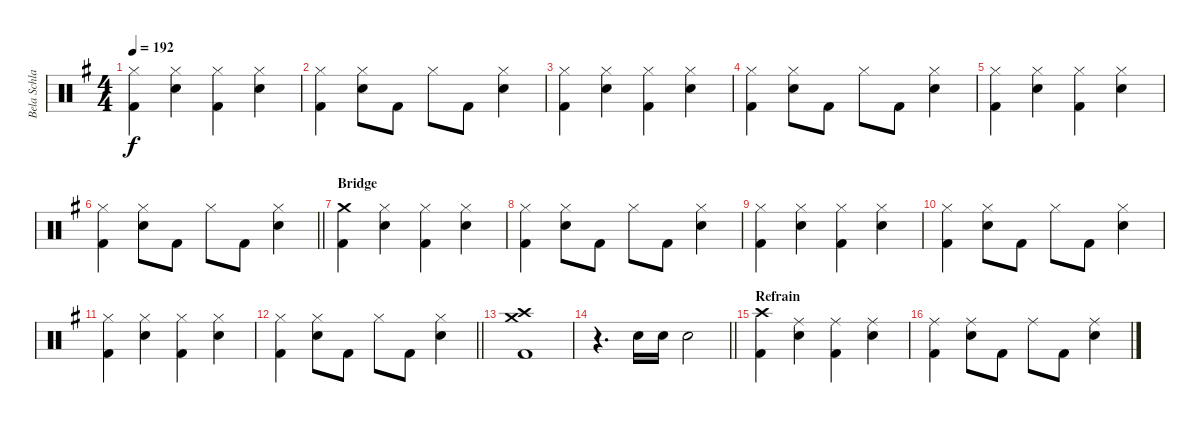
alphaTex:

\track ("Bela Schlagzeug" "Bela Schla") {instrument percussion}
\staff {score}
\articulation defaults
\ts (4 4)
\tempo 192
\clef neutral
\ks g
("Hi-Hat (closed)" "Kick (hit) 2").4{dy f} ("Hi-Hat (closed)" "Electric Snare (hit)").4 ("Hi-Hat (closed)" "Kick (hit) 2").4 ("Hi-Hat (closed)" "Electric Snare (hit)").4 |
("Hi-Hat (closed)" "Kick (hit) 2").4 ("Hi-Hat (closed)" "Electric Snare (hit)").8 "Kick (hit) 2".8 "Hi-Hat (closed)".8 "Kick (hit) 2".8 ("Hi-Hat (closed)" "Electric Snare (hit)").4 |
("Hi-Hat (closed)" "Kick (hit) 2").4 ("Hi-Hat (closed)" "Electric Snare (hit)").4 ("Hi-Hat (closed)" "Kick (hit) 2").4 ("Hi-Hat (closed)" "Electric Snare (hit)").4 |
("Hi-Hat (closed)" "Kick (hit) 2").4 ("Hi-Hat (closed)" "Electric Snare (hit)").8 "Kick (hit) 2".8 "Hi-Hat (closed)".8 "Kick (hit) 2".8 ("Hi-Hat (closed)" "Electric Snare (hit)").4 |
("Hi-Hat (closed)" "Kick (hit) 2").4 ("Hi-Hat (closed)" "Electric Snare (hit)").4 ("Hi-Hat (closed)" "Kick (hit) 2").4 ("Hi-Hat (closed)" "Electric Snare (hit)").4 |
\barLineRight lightlight
("Hi-Hat (closed)" "Kick (hit) 2").4 ("Hi-Hat (closed)" "Electric Snare (hit)").8 "Kick (hit) 2".8 "Hi-Hat (closed)".8 "Kick (hit) 2".8 ("Hi-Hat (closed)" "Electric Snare (hit)").4 |
\section ("" "Bridge")
("Crash medium (hit)" "Kick (hit) 2").4 ("Hi-Hat (closed)" "Electric Snare (hit)").4 ("Hi-Hat (closed)" "Kick (hit) 2").4 ("Hi-Hat (closed)" "Electric Snare (hit)").4 |
("Hi-Hat (closed)" "Kick (hit) 2").4 ("Hi-Hat (closed)" "Electric Snare (hit)").8 "Kick (hit) 2".8 "Hi-Hat (closed)".8 "Kick (hit) 2".8 ("Hi-Hat (closed)" "Electric Snare (hit)").4 |
("Hi-Hat (closed)" "Kick (hit) 2").4 ("Hi-Hat (closed)" "Electric Snare (hit)").4 ("Hi-Hat (closed)" "Kick (hit) 2").4 ("Hi-Hat (closed)" "Electric Snare (hit)").4 |
("Hi-Hat (closed)" "Kick (hit) 2").4 ("Hi-Hat (closed)" "Electric Snare (hit)").8 "Kick (hit) 2".8 "Hi-Hat (closed)".8 "Kick (hit) 2".8 ("Hi-Hat (closed)" "Electric Snare (hit)").4 |
("Hi-Hat (closed)" "Kick (hit) 2").4 ("Hi-Hat (closed)" "Electric Snare (hit)").4 ("Hi-Hat (closed)" "Kick (hit) 2").4 ("Hi-Hat (closed)" "Electric Snare (hit)").4 |
\barLineRight lightlight
("Hi-Hat (closed)" "Kick (hit) 2").4 ("Hi-Hat (closed)" "Electric Snare (hit)").8 "Kick (hit) 2".8 "Hi-Hat (closed)".8 "Kick (hit) 2".8 ("Hi-Hat (closed)" "Electric Snare (hit)").4 |
("Crash medium (hit)" "Crash high (hit)" "Kick (hit) 2").1 |
\barLineRight lightlight
r.4{d} "Electric Snare (hit)".16 "Electric Snare (hit)".16 "Electric Snare (hit)".2 |
\section ("" "Refrain")
("Crash high (hit)" "Kick (hit) 2").4 ("Ride (middle)" "Electric Snare (hit)").4 ("Ride (middle)" "Kick (hit) 2").4 ("Ride (middle)" "Electric Snare (hit)").4 |
("Ride (middle)" "Kick (hit) 2").4 ("Ride (middle)" "Electric Snare (hit)").8 "Kick (hit) 2".8 "Ride (middle)".8 "Kick (hit) 2".8 ("Ride (middle)" "Electric Snare (hit)").4
